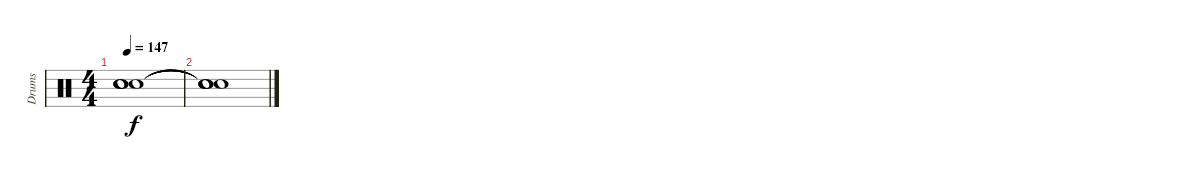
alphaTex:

\track ("Drums" "Drums") {instrument percussion}
\staff {score}
\articulation defaults
\ts (4 4)
\tempo 147
\clef neutral
\ks c
("Snare (hit)"{t} "Snare (hit)"{t} "Snare (hit)"{t} "Snare (hit)"{t}).1{dy f} |
("Snare (hit)"{t} "Snare (hit)"{t} "Snare (hit)"{t} "Snare (hit)"{t}).1
